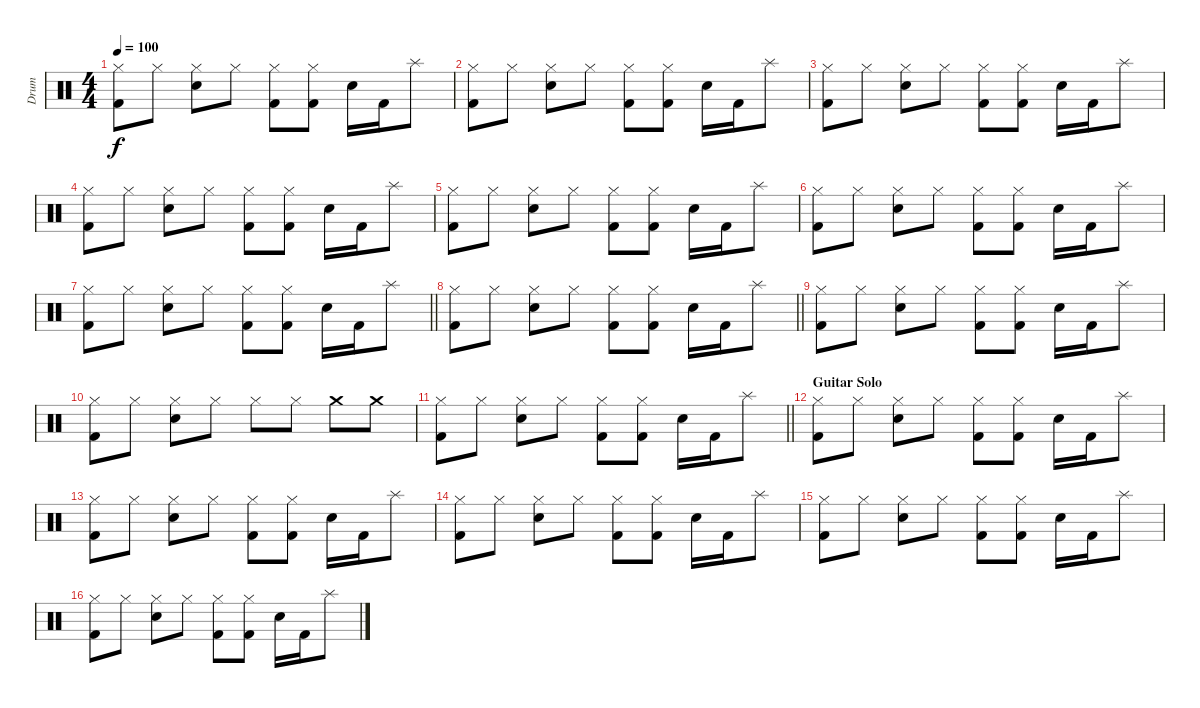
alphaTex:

\track ("Drum" "Drum") {instrument percussion}
\staff {score}
\articulation defaults
\ts (4 4)
\tempo 100
\clef neutral
\ks c
("Hi-Hat (closed)" "Kick (hit) 2").8{dy f} "Hi-Hat (closed)".8 ("Hi-Hat (closed)" "Snare (hit) 2").8 "Hi-Hat (closed)".8 ("Hi-Hat (closed)" "Kick (hit) 2").8 ("Hi-Hat (closed)" "Kick (hit) 2").8 "Electric Snare (hit)".16 "Kick (hit) 2".16 "Splash (hit)".8 |
("Hi-Hat (closed)" "Kick (hit) 2").8 "Hi-Hat (closed)".8 ("Hi-Hat (closed)" "Snare (hit) 2").8 "Hi-Hat (closed)".8 ("Hi-Hat (closed)" "Kick (hit) 2").8 ("Hi-Hat (closed)" "Kick (hit) 2").8 "Electric Snare (hit)".16 "Kick (hit) 2".16 "Splash (hit)".8 |
("Hi-Hat (closed)" "Kick (hit) 2").8 "Hi-Hat (closed)".8 ("Hi-Hat (closed)" "Snare (hit) 2").8 "Hi-Hat (closed)".8 ("Hi-Hat (closed)" "Kick (hit) 2").8 ("Hi-Hat (closed)" "Kick (hit) 2").8 "Electric Snare (hit)".16 "Kick (hit) 2".16 "Splash (hit)".8 |
("Hi-Hat (closed)" "Kick (hit) 2").8 "Hi-Hat (closed)".8 ("Hi-Hat (closed)" "Snare (hit) 2").8 "Hi-Hat (closed)".8 ("Hi-Hat (closed)" "Kick (hit) 2").8 ("Hi-Hat (closed)" "Kick (hit) 2").8 "Electric Snare (hit)".16 "Kick (hit) 2".16 "Splash (hit)".8 |
("Hi-Hat (closed)" "Kick (hit) 2").8 "Hi-Hat (closed)".8 ("Hi-Hat (closed)" "Snare (hit) 2").8 "Hi-Hat (closed)".8 ("Hi-Hat (closed)" "Kick (hit) 2").8 ("Hi-Hat (closed)" "Kick (hit) 2").8 "Electric Snare (hit)".16 "Kick (hit) 2".16 "Splash (hit)".8 |
("Hi-Hat (closed)" "Kick (hit) 2").8 "Hi-Hat (closed)".8 ("Hi-Hat (closed)" "Snare (hit) 2").8 "Hi-Hat (closed)".8 ("Hi-Hat (closed)" "Kick (hit) 2").8 ("Hi-Hat (closed)" "Kick (hit) 2").8 "Electric Snare (hit)".16 "Kick (hit) 2".16 "Splash (hit)".8 |
\barLineRight lightlight
("Hi-Hat (closed)" "Kick (hit) 2").8 "Hi-Hat (closed)".8 ("Hi-Hat (closed)" "Snare (hit) 2").8 "Hi-Hat (closed)".8 ("Hi-Hat (closed)" "Kick (hit) 2").8 ("Hi-Hat (closed)" "Kick (hit) 2").8 "Electric Snare (hit)".16 "Kick (hit) 2".16 "Splash (hit)".8 |
\barLineRight lightlight
("Hi-Hat (closed)" "Kick (hit) 2").8 "Hi-Hat (closed)".8 ("Hi-Hat (closed)" "Snare (hit) 2").8 "Hi-Hat (closed)".8 ("Hi-Hat (closed)" "Kick (hit) 2").8 ("Hi-Hat (closed)" "Kick (hit) 2").8 "Electric Snare (hit)".16 "Kick (hit) 2".16 "Splash (hit)".8 |
("Hi-Hat (closed)" "Kick (hit) 2").8 "Hi-Hat (closed)".8 ("Hi-Hat (closed)" "Snare (hit) 2").8 "Hi-Hat (closed)".8 ("Hi-Hat (closed)" "Kick (hit) 2").8 ("Hi-Hat (closed)" "Kick (hit) 2").8 "Electric Snare (hit)".16 "Kick (hit) 2".16 "Splash (hit)".8 |
("Hi-Hat (closed)" "Kick (hit) 2").8 "Hi-Hat (closed)".8 ("Hi-Hat (closed)" "Snare (hit) 2").8 "Hi-Hat (closed)".8 "Hi-Hat (closed)".8 "Hi-Hat (closed)".8 "Crash medium (hit)".8 "Crash medium (hit)".8 |
\barLineRight lightlight
("Hi-Hat (closed)" "Kick (hit) 2").8 "Hi-Hat (closed)".8 ("Hi-Hat (closed)" "Snare (hit) 2").8 "Hi-Hat (closed)".8 ("Hi-Hat (closed)" "Kick (hit) 2").8 ("Hi-Hat (closed)" "Kick (hit) 2").8 "Electric Snare (hit)".16 "Kick (hit) 2".16 "Splash (hit)".8 |
\section ("" "Guitar Solo")
("Hi-Hat (closed)" "Kick (hit) 2").8 "Hi-Hat (closed)".8 ("Hi-Hat (closed)" "Snare (hit) 2").8 "Hi-Hat (closed)".8 ("Hi-Hat (closed)" "Kick (hit) 2").8 ("Hi-Hat (closed)" "Kick (hit) 2").8 "Electric Snare (hit)".16 "Kick (hit) 2".16 "Splash (hit)".8 |
("Hi-Hat (closed)" "Kick (hit) 2").8 "Hi-Hat (closed)".8 ("Hi-Hat (closed)" "Snare (hit) 2").8 "Hi-Hat (closed)".8 ("Hi-Hat (closed)" "Kick (hit) 2").8 ("Hi-Hat (closed)" "Kick (hit) 2").8 "Electric Snare (hit)".16 "Kick (hit) 2".16 "Splash (hit)".8 |
("Hi-Hat (closed)" "Kick (hit) 2").8 "Hi-Hat (closed)".8 ("Hi-Hat (closed)" "Snare (hit) 2").8 "Hi-Hat (closed)".8 ("Hi-Hat (closed)" "Kick (hit) 2").8 ("Hi-Hat (closed)" "Kick (hit) 2").8 "Electric Snare (hit)".16 "Kick (hit) 2".16 "Splash (hit)".8 |
("Hi-Hat (closed)" "Kick (hit) 2").8 "Hi-Hat (closed)".8 ("Hi-Hat (closed)" "Snare (hit) 2").8 "Hi-Hat (closed)".8 ("Hi-Hat (closed)" "Kick (hit) 2").8 ("Hi-Hat (closed)" "Kick (hit) 2").8 "Electric Snare (hit)".16 "Kick (hit) 2".16 "Splash (hit)".8 |
("Hi-Hat (closed)" "Kick (hit) 2").8 "Hi-Hat (closed)".8 ("Hi-Hat (closed)" "Snare (hit) 2").8 "Hi-Hat (closed)".8 ("Hi-Hat (closed)" "Kick (hit) 2").8 ("Hi-Hat (closed)" "Kick (hit) 2").8 "Electric Snare (hit)".16 "Kick (hit) 2".16 "Splash (hit)".8
